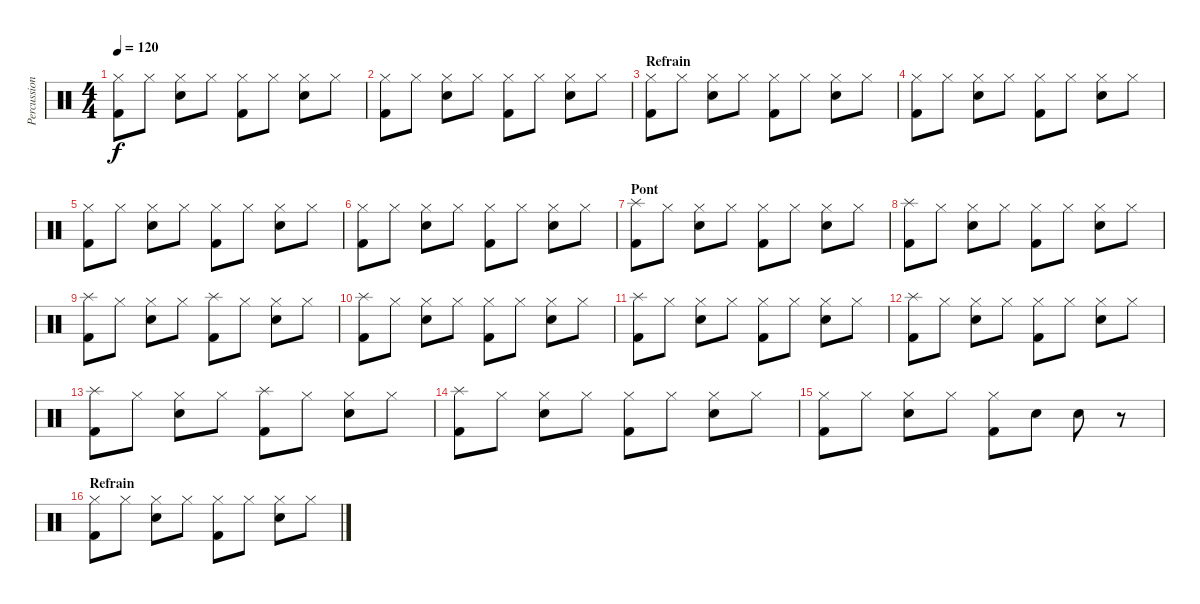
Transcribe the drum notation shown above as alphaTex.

\track ("Percussions" "Percussion") {instrument percussion}
\staff {score}
\articulation defaults
\ts (4 4)
\tempo 120
\clef neutral
\ks c
("Kick (hit) 2" "Hi-Hat (closed)").8{dy f} "Hi-Hat (closed)".8 ("Electric Snare (hit)" "Hi-Hat (closed)").8 "Hi-Hat (closed)".8 ("Kick (hit) 2" "Hi-Hat (closed)").8 "Hi-Hat (closed)".8 ("Electric Snare (hit)" "Hi-Hat (closed)").8 "Hi-Hat (closed)".8 |
("Kick (hit) 2" "Hi-Hat (closed)").8 "Hi-Hat (closed)".8 ("Electric Snare (hit)" "Hi-Hat (closed)").8 "Hi-Hat (closed)".8 ("Kick (hit) 2" "Hi-Hat (closed)").8 "Hi-Hat (closed)".8 ("Electric Snare (hit)" "Hi-Hat (closed)").8 "Hi-Hat (closed)".8 |
\section ("" "Refrain")
("Kick (hit) 2" "Hi-Hat (closed)").8 "Hi-Hat (closed)".8 ("Electric Snare (hit)" "Hi-Hat (closed)").8 "Hi-Hat (closed)".8 ("Kick (hit) 2" "Hi-Hat (closed)").8 "Hi-Hat (closed)".8 ("Electric Snare (hit)" "Hi-Hat (closed)").8 "Hi-Hat (closed)".8 |
("Kick (hit) 2" "Hi-Hat (closed)").8 "Hi-Hat (closed)".8 ("Electric Snare (hit)" "Hi-Hat (closed)").8 "Hi-Hat (closed)".8 ("Kick (hit) 2" "Hi-Hat (closed)").8 "Hi-Hat (closed)".8 ("Electric Snare (hit)" "Hi-Hat (closed)").8 "Hi-Hat (closed)".8 |
("Kick (hit) 2" "Hi-Hat (closed)").8 "Hi-Hat (closed)".8 ("Electric Snare (hit)" "Hi-Hat (closed)").8 "Hi-Hat (closed)".8 ("Kick (hit) 2" "Hi-Hat (closed)").8 "Hi-Hat (closed)".8 ("Electric Snare (hit)" "Hi-Hat (closed)").8 "Hi-Hat (closed)".8 |
("Kick (hit) 2" "Hi-Hat (closed)").8 "Hi-Hat (closed)".8 ("Electric Snare (hit)" "Hi-Hat (closed)").8 "Hi-Hat (closed)".8 ("Kick (hit) 2" "Hi-Hat (closed)").8 "Hi-Hat (closed)".8 ("Electric Snare (hit)" "Hi-Hat (closed)").8 "Hi-Hat (closed)".8 |
\section ("" "Pont")
("Kick (hit) 2" "Splash (hit)").8 "Hi-Hat (closed)".8 ("Electric Snare (hit)" "Hi-Hat (closed)").8 "Hi-Hat (closed)".8 ("Kick (hit) 2" "Hi-Hat (closed)").8 "Hi-Hat (closed)".8 ("Electric Snare (hit)" "Hi-Hat (closed)").8 "Hi-Hat (closed)".8 |
("Kick (hit) 2" "Splash (hit)").8 "Hi-Hat (closed)".8 ("Electric Snare (hit)" "Hi-Hat (closed)").8 "Hi-Hat (closed)".8 ("Kick (hit) 2" "Hi-Hat (closed)").8 "Hi-Hat (closed)".8 ("Electric Snare (hit)" "Hi-Hat (closed)").8 "Hi-Hat (closed)".8 |
("Kick (hit) 2" "Splash (hit)").8 "Hi-Hat (closed)".8 ("Electric Snare (hit)" "Hi-Hat (closed)").8 "Hi-Hat (closed)".8 ("Kick (hit) 2" "Splash (hit)").8 "Hi-Hat (closed)".8 ("Electric Snare (hit)" "Hi-Hat (closed)").8 "Hi-Hat (closed)".8 |
("Kick (hit) 2" "Splash (hit)").8 "Hi-Hat (closed)".8 ("Electric Snare (hit)" "Hi-Hat (closed)").8 "Hi-Hat (closed)".8 ("Kick (hit) 2" "Hi-Hat (closed)").8 "Hi-Hat (closed)".8 ("Electric Snare (hit)" "Hi-Hat (closed)").8 "Hi-Hat (closed)".8 |
("Kick (hit) 2" "Splash (hit)").8 "Hi-Hat (closed)".8 ("Electric Snare (hit)" "Hi-Hat (closed)").8 "Hi-Hat (closed)".8 ("Kick (hit) 2" "Hi-Hat (closed)").8 "Hi-Hat (closed)".8 ("Electric Snare (hit)" "Hi-Hat (closed)").8 "Hi-Hat (closed)".8 |
("Kick (hit) 2" "Splash (hit)").8 "Hi-Hat (closed)".8 ("Electric Snare (hit)" "Hi-Hat (closed)").8 "Hi-Hat (closed)".8 ("Kick (hit) 2" "Hi-Hat (closed)").8 "Hi-Hat (closed)".8 ("Electric Snare (hit)" "Hi-Hat (closed)").8 "Hi-Hat (closed)".8 |
("Kick (hit) 2" "Splash (hit)").8 "Hi-Hat (closed)".8 ("Electric Snare (hit)" "Hi-Hat (closed)").8 "Hi-Hat (closed)".8 ("Kick (hit) 2" "Splash (hit)").8 "Hi-Hat (closed)".8 ("Electric Snare (hit)" "Hi-Hat (closed)").8 "Hi-Hat (closed)".8 |
("Kick (hit) 2" "Splash (hit)").8 "Hi-Hat (closed)".8 ("Electric Snare (hit)" "Hi-Hat (closed)").8 "Hi-Hat (closed)".8 ("Kick (hit) 2" "Hi-Hat (closed)").8 "Hi-Hat (closed)".8 ("Electric Snare (hit)" "Hi-Hat (closed)").8 "Hi-Hat (closed)".8 |
("Kick (hit) 2" "Hi-Hat (closed)").8 "Hi-Hat (closed)".8 ("Electric Snare (hit)" "Hi-Hat (closed)").8 "Hi-Hat (closed)".8 ("Kick (hit) 2" "Hi-Hat (closed)").8 "Electric Snare (hit)".8 "Electric Snare (hit)".8 r.8 |
\section ("" "Refrain")
("Kick (hit) 2" "Hi-Hat (closed)").8 "Hi-Hat (closed)".8 ("Electric Snare (hit)" "Hi-Hat (closed)").8 "Hi-Hat (closed)".8 ("Kick (hit) 2" "Hi-Hat (closed)").8 "Hi-Hat (closed)".8 ("Electric Snare (hit)" "Hi-Hat (closed)").8 "Hi-Hat (closed)".8
